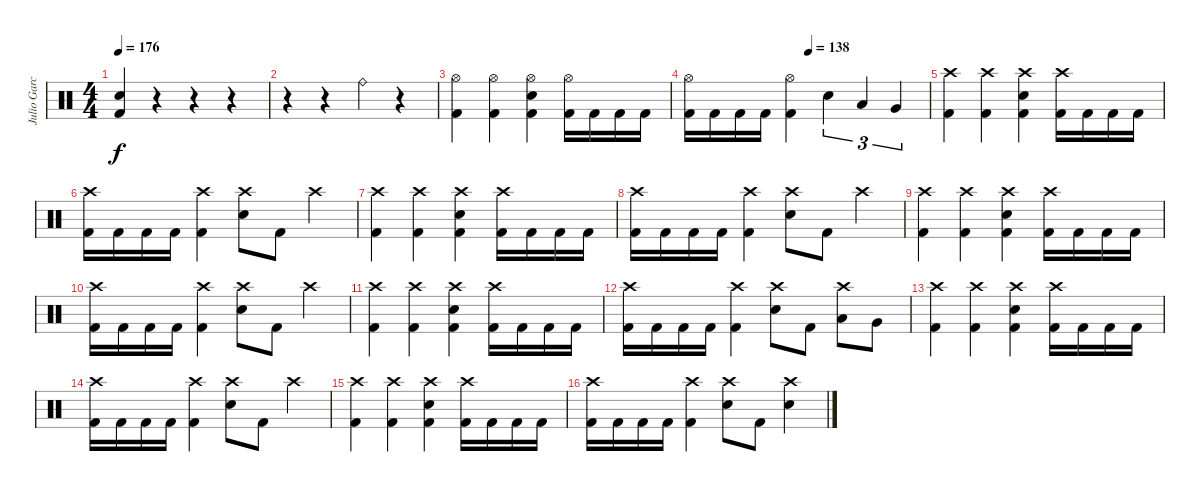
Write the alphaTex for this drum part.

\track ("Julio Garcia" "Julio Garc") {instrument percussion}
\staff {score}
\articulation defaults
\ts (4 4)
\tempo 176
\clef neutral
\ks c
("Electric Snare (hit)" "Kick (hit) 2").4{dy f} r.4 r.4 r.4 |
r.4 r.4 "Ride (bell)".4 r.4 |
("Hi-Hat (open)" "Kick (hit) 2").4 ("Hi-Hat (open)" "Kick (hit) 2").4 ("Hi-Hat (open)" "Electric Snare (hit)" "Kick (hit) 2").4 ("Hi-Hat (open)" "Kick (hit) 2").16 "Kick (hit) 2".16 "Kick (hit) 2".16 "Kick (hit) 2".16 |
\tempo (138 0.5)
("Hi-Hat (open)" "Kick (hit) 2").16 "Kick (hit) 2".16 "Kick (hit) 2".16 "Kick (hit) 2".16 ("Hi-Hat (open)" "Kick (hit) 2").4 "Electric Snare (hit)".4{tu (3 2)} "Low Tom (hit)".4{tu (3 2)} "Very Low Tom (hit)".4{tu (3 2)} |
("Crash high (hit)" "Kick (hit) 2").4 ("Crash high (hit)" "Kick (hit) 2").4 ("Crash high (hit)" "Electric Snare (hit)" "Kick (hit) 2").4 ("Crash high (hit)" "Kick (hit) 2").16 "Kick (hit) 2".16 "Kick (hit) 2".16 "Kick (hit) 2".16 |
("Crash high (hit)" "Kick (hit) 2").16 "Kick (hit) 2".16 "Kick (hit) 2".16 "Kick (hit) 2".16 ("Crash high (hit)" "Kick (hit) 2").4 ("Crash high (hit)" "Electric Snare (hit)").8 "Kick (hit) 2".8 "Crash high (hit)".4 |
("Crash high (hit)" "Kick (hit) 2").4 ("Crash high (hit)" "Kick (hit) 2").4 ("Crash high (hit)" "Electric Snare (hit)" "Kick (hit) 2").4 ("Crash high (hit)" "Kick (hit) 2").16 "Kick (hit) 2".16 "Kick (hit) 2".16 "Kick (hit) 2".16 |
("Crash high (hit)" "Kick (hit) 2").16 "Kick (hit) 2".16 "Kick (hit) 2".16 "Kick (hit) 2".16 ("Crash high (hit)" "Kick (hit) 2").4 ("Crash high (hit)" "Electric Snare (hit)").8 "Kick (hit) 2".8 "Crash high (hit)".4 |
("Crash high (hit)" "Kick (hit) 2").4 ("Crash high (hit)" "Kick (hit) 2").4 ("Crash high (hit)" "Electric Snare (hit)" "Kick (hit) 2").4 ("Crash high (hit)" "Kick (hit) 2").16 "Kick (hit) 2".16 "Kick (hit) 2".16 "Kick (hit) 2".16 |
("Crash high (hit)" "Kick (hit) 2").16 "Kick (hit) 2".16 "Kick (hit) 2".16 "Kick (hit) 2".16 ("Crash high (hit)" "Kick (hit) 2").4 ("Crash high (hit)" "Electric Snare (hit)").8 "Kick (hit) 2".8 "Crash high (hit)".4 |
("Crash high (hit)" "Kick (hit) 2").4 ("Crash high (hit)" "Kick (hit) 2").4 ("Crash high (hit)" "Electric Snare (hit)" "Kick (hit) 2").4 ("Crash high (hit)" "Kick (hit) 2").16 "Kick (hit) 2".16 "Kick (hit) 2".16 "Kick (hit) 2".16 |
("Crash high (hit)" "Kick (hit) 2").16 "Kick (hit) 2".16 "Kick (hit) 2".16 "Kick (hit) 2".16 ("Crash high (hit)" "Kick (hit) 2").4 ("Crash high (hit)" "Electric Snare (hit)").8 "Kick (hit) 2".8 ("Crash high (hit)" "Low Tom (hit)").8 "Very Low Tom (hit)".8 |
("Crash high (hit)" "Kick (hit) 2").4 ("Crash high (hit)" "Kick (hit) 2").4 ("Crash high (hit)" "Electric Snare (hit)" "Kick (hit) 2").4 ("Crash high (hit)" "Kick (hit) 2").16 "Kick (hit) 2".16 "Kick (hit) 2".16 "Kick (hit) 2".16 |
("Crash high (hit)" "Kick (hit) 2").16 "Kick (hit) 2".16 "Kick (hit) 2".16 "Kick (hit) 2".16 ("Crash high (hit)" "Kick (hit) 2").4 ("Crash high (hit)" "Electric Snare (hit)").8 "Kick (hit) 2".8 "Crash high (hit)".4 |
("Crash high (hit)" "Kick (hit) 2").4 ("Crash high (hit)" "Kick (hit) 2").4 ("Crash high (hit)" "Electric Snare (hit)" "Kick (hit) 2").4 ("Crash high (hit)" "Kick (hit) 2").16 "Kick (hit) 2".16 "Kick (hit) 2".16 "Kick (hit) 2".16 |
("Crash high (hit)" "Kick (hit) 2").16 "Kick (hit) 2".16 "Kick (hit) 2".16 "Kick (hit) 2".16 ("Crash high (hit)" "Kick (hit) 2").4 ("Crash high (hit)" "Electric Snare (hit)").8 "Kick (hit) 2".8 ("Crash high (hit)" "Electric Snare (hit)").4
